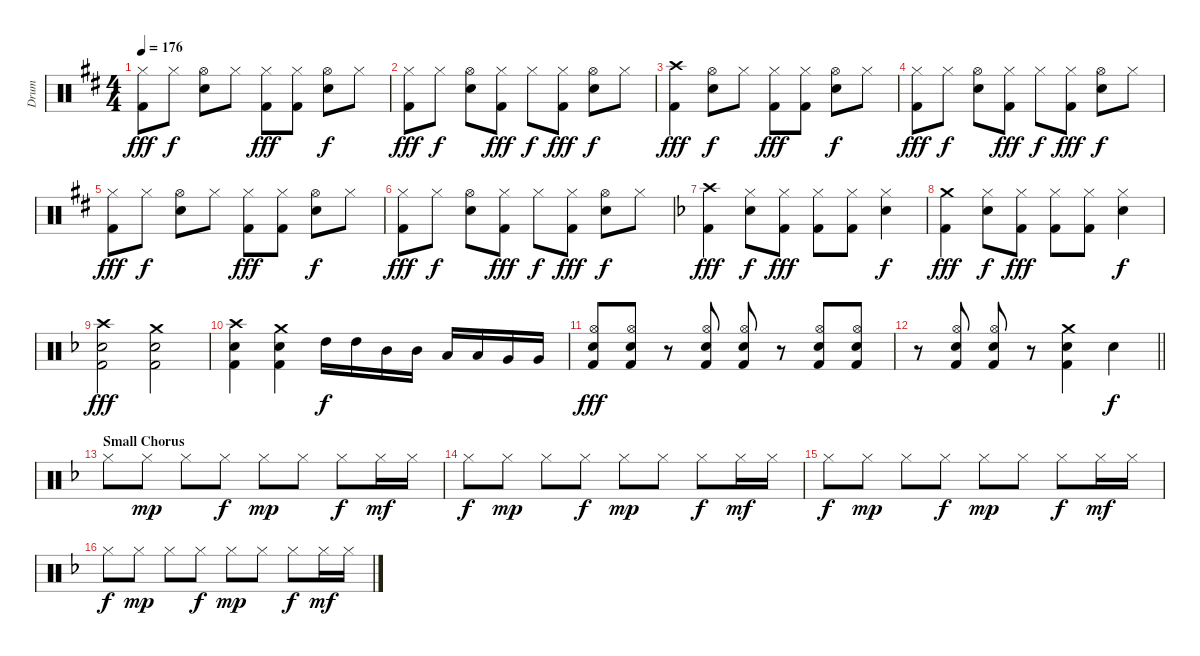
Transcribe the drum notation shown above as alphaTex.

\track ("Drum" "Drum") {instrument percussion}
\staff {score}
\articulation defaults
\ts (4 4)
\tempo 176
\clef neutral
\ks d
("Hi-Hat (closed)" "Kick (hit) 2").8{dy fff} "Hi-Hat (closed)".8{dy f} ("Hi-Hat (open)" "Snare (hit) 2").8 "Hi-Hat (closed)".8 ("Hi-Hat (closed)" "Kick (hit) 2").8{dy fff} ("Hi-Hat (closed)" "Kick (hit) 2").8 ("Hi-Hat (open)" "Snare (hit) 2").8{dy f} "Hi-Hat (closed)".8 |
("Hi-Hat (closed)" "Kick (hit) 2").8{dy fff} "Hi-Hat (closed)".8{dy f} ("Hi-Hat (open)" "Snare (hit) 2").8 ("Hi-Hat (closed)" "Kick (hit) 2").8{dy fff} "Hi-Hat (closed)".8{dy f} ("Hi-Hat (closed)" "Kick (hit) 2").8{dy fff} ("Hi-Hat (open)" "Snare (hit) 2").8{dy f} "Hi-Hat (closed)".8 |
("Crash high (hit)" "Kick (hit) 2").4{dy fff} ("Hi-Hat (open)" "Snare (hit) 2").8{dy f} "Hi-Hat (closed)".8 ("Hi-Hat (closed)" "Kick (hit) 2").8{dy fff} ("Hi-Hat (closed)" "Kick (hit) 2").8 ("Hi-Hat (open)" "Snare (hit) 2").8{dy f} "Hi-Hat (closed)".8 |
("Hi-Hat (closed)" "Kick (hit) 2").8{dy fff} "Hi-Hat (closed)".8{dy f} ("Hi-Hat (open)" "Snare (hit) 2").8 ("Hi-Hat (closed)" "Kick (hit) 2").8{dy fff} "Hi-Hat (closed)".8{dy f} ("Hi-Hat (closed)" "Kick (hit) 2").8{dy fff} ("Hi-Hat (open)" "Snare (hit) 2").8{dy f} "Hi-Hat (closed)".8 |
("Hi-Hat (closed)" "Kick (hit) 2").8{dy fff} "Hi-Hat (closed)".8{dy f} ("Hi-Hat (open)" "Snare (hit) 2").8 "Hi-Hat (closed)".8 ("Hi-Hat (closed)" "Kick (hit) 2").8{dy fff} ("Hi-Hat (closed)" "Kick (hit) 2").8 ("Hi-Hat (open)" "Snare (hit) 2").8{dy f} "Hi-Hat (closed)".8 |
("Hi-Hat (closed)" "Kick (hit) 2").8{dy fff} "Hi-Hat (closed)".8{dy f} ("Hi-Hat (open)" "Snare (hit) 2").8 ("Hi-Hat (closed)" "Kick (hit) 2").8{dy fff} "Hi-Hat (closed)".8{dy f} ("Hi-Hat (closed)" "Kick (hit) 2").8{dy fff} ("Hi-Hat (open)" "Snare (hit) 2").8{dy f} "Hi-Hat (closed)".8 |
\ks f
("Crash high (hit)" "Kick (hit) 2").4{dy fff} ("Hi-Hat (closed)" "Snare (hit) 2").8{dy f} ("Hi-Hat (closed)" "Kick (hit) 2").8{dy fff} ("Hi-Hat (closed)" "Kick (hit) 2").8 ("Hi-Hat (closed)" "Kick (hit) 2").8 ("Hi-Hat (closed)" "Snare (hit) 2").4{dy f} |
("Crash medium (hit)" "Kick (hit) 2").4{dy fff} ("Hi-Hat (closed)" "Snare (hit) 2").8{dy f} ("Hi-Hat (closed)" "Kick (hit) 2").8{dy fff} ("Hi-Hat (closed)" "Kick (hit) 2").8 ("Hi-Hat (closed)" "Kick (hit) 2").8 ("Hi-Hat (closed)" "Snare (hit) 2").4{dy f} |
("Crash high (hit)" "Snare (hit) 2" "Kick (hit) 2").2{dy fff} ("Crash medium (hit)" "Snare (hit) 2" "Kick (hit) 2").2 |
("Crash high (hit)" "Snare (hit) 2" "Kick (hit) 2").4 ("Crash medium (hit)" "Snare (hit) 2" "Kick (hit) 2").4 "High Tom (hit)".16{dy f} "High Tom (hit)".16 "Mid Tom (hit)".16 "Mid Tom (hit)".16 "Low Tom (hit)".16 "Low Tom (hit)".16 "Very Low Tom (hit)".16 "Very Low Tom (hit)".16 |
("Hi-Hat (open)" "Snare (hit) 2" "Kick (hit) 2").8{dy fff} ("Hi-Hat (open)" "Snare (hit) 2" "Kick (hit) 2").8 r.8 ("Hi-Hat (open)" "Snare (hit) 2" "Kick (hit) 2").8 ("Hi-Hat (open)" "Snare (hit) 2" "Kick (hit) 2").8 r.8 ("Hi-Hat (open)" "Snare (hit) 2" "Kick (hit) 2").8 ("Hi-Hat (open)" "Snare (hit) 2" "Kick (hit) 2").8 |
\barLineRight lightlight
r.8 ("Hi-Hat (open)" "Snare (hit) 2" "Kick (hit) 2").8 ("Hi-Hat (open)" "Snare (hit) 2" "Kick (hit) 2").8 r.8 ("Crash medium (hit)" "Snare (hit) 2" "Kick (hit) 2").4 "Snare (hit) 2".4{dy f} |
\section ("" "Small Chorus")
"Hi-Hat (closed)".8 "Hi-Hat (closed)".8{dy mp} "Hi-Hat (closed)".8 "Hi-Hat (closed)".8{dy f} "Hi-Hat (closed)".8{dy mp} "Hi-Hat (closed)".8 "Hi-Hat (closed)".8{dy f} "Hi-Hat (closed)".16{dy mf} "Hi-Hat (closed)".16 |
"Hi-Hat (closed)".8{dy f} "Hi-Hat (closed)".8{dy mp} "Hi-Hat (closed)".8 "Hi-Hat (closed)".8{dy f} "Hi-Hat (closed)".8{dy mp} "Hi-Hat (closed)".8 "Hi-Hat (closed)".8{dy f} "Hi-Hat (closed)".16{dy mf} "Hi-Hat (closed)".16 |
"Hi-Hat (closed)".8{dy f} "Hi-Hat (closed)".8{dy mp} "Hi-Hat (closed)".8 "Hi-Hat (closed)".8{dy f} "Hi-Hat (closed)".8{dy mp} "Hi-Hat (closed)".8 "Hi-Hat (closed)".8{dy f} "Hi-Hat (closed)".16{dy mf} "Hi-Hat (closed)".16 |
"Hi-Hat (closed)".8{dy f} "Hi-Hat (closed)".8{dy mp} "Hi-Hat (closed)".8 "Hi-Hat (closed)".8{dy f} "Hi-Hat (closed)".8{dy mp} "Hi-Hat (closed)".8 "Hi-Hat (closed)".8{dy f} "Hi-Hat (closed)".16{dy mf} "Hi-Hat (closed)".16
